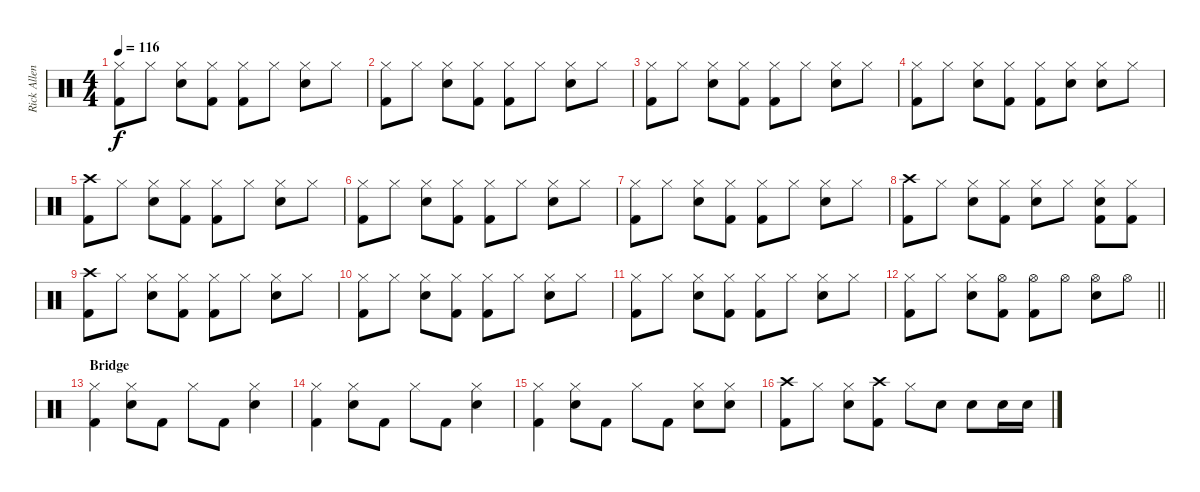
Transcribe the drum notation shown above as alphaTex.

\track ("Rick Allen" "Rick Allen") {instrument percussion}
\staff {score}
\articulation defaults
\ts (4 4)
\tempo 116
\clef neutral
\ks c
("Hi-Hat (closed)" "Kick (hit) 2").8{dy f} "Hi-Hat (closed)".8 ("Hi-Hat (closed)" "Electric Snare (hit)").8 ("Hi-Hat (closed)" "Kick (hit) 2").8 ("Hi-Hat (closed)" "Kick (hit) 2").8 "Hi-Hat (closed)".8 ("Hi-Hat (closed)" "Electric Snare (hit)").8 "Hi-Hat (closed)".8 |
("Hi-Hat (closed)" "Kick (hit) 2").8 "Hi-Hat (closed)".8 ("Hi-Hat (closed)" "Electric Snare (hit)").8 ("Hi-Hat (closed)" "Kick (hit) 2").8 ("Hi-Hat (closed)" "Kick (hit) 2").8 "Hi-Hat (closed)".8 ("Hi-Hat (closed)" "Electric Snare (hit)").8 "Hi-Hat (closed)".8 |
("Hi-Hat (closed)" "Kick (hit) 2").8 "Hi-Hat (closed)".8 ("Hi-Hat (closed)" "Electric Snare (hit)").8 ("Hi-Hat (closed)" "Kick (hit) 2").8 ("Hi-Hat (closed)" "Kick (hit) 2").8 "Hi-Hat (closed)".8 ("Hi-Hat (closed)" "Electric Snare (hit)").8 "Hi-Hat (closed)".8 |
("Hi-Hat (closed)" "Kick (hit) 2").8 "Hi-Hat (closed)".8 ("Hi-Hat (closed)" "Electric Snare (hit)").8 ("Hi-Hat (closed)" "Kick (hit) 2").8 ("Hi-Hat (closed)" "Kick (hit) 2").8 ("Hi-Hat (closed)" "Electric Snare (hit)").8 ("Hi-Hat (closed)" "Electric Snare (hit)").8 "Hi-Hat (closed)".8 |
("Crash high (hit)" "Kick (hit) 2").8 "Hi-Hat (closed)".8 ("Hi-Hat (closed)" "Electric Snare (hit)").8 ("Hi-Hat (closed)" "Kick (hit) 2").8 ("Hi-Hat (closed)" "Kick (hit) 2").8 "Hi-Hat (closed)".8 ("Hi-Hat (closed)" "Electric Snare (hit)").8 "Hi-Hat (closed)".8 |
("Hi-Hat (closed)" "Kick (hit) 2").8 "Hi-Hat (closed)".8 ("Hi-Hat (closed)" "Electric Snare (hit)").8 ("Hi-Hat (closed)" "Kick (hit) 2").8 ("Hi-Hat (closed)" "Kick (hit) 2").8 "Hi-Hat (closed)".8 ("Hi-Hat (closed)" "Electric Snare (hit)").8 "Hi-Hat (closed)".8 |
("Hi-Hat (closed)" "Kick (hit) 2").8 "Hi-Hat (closed)".8 ("Hi-Hat (closed)" "Electric Snare (hit)").8 ("Hi-Hat (closed)" "Kick (hit) 2").8 ("Hi-Hat (closed)" "Kick (hit) 2").8 "Hi-Hat (closed)".8 ("Hi-Hat (closed)" "Electric Snare (hit)").8 "Hi-Hat (closed)".8 |
("Crash high (hit)" "Kick (hit) 2").8 "Hi-Hat (closed)".8 ("Hi-Hat (closed)" "Electric Snare (hit)").8 ("Hi-Hat (closed)" "Kick (hit) 2").8 ("Hi-Hat (closed)" "Electric Snare (hit)").8 "Hi-Hat (closed)".8 ("Hi-Hat (closed)" "Electric Snare (hit)" "Kick (hit) 2").8 ("Hi-Hat (closed)" "Kick (hit) 2").8 |
("Crash high (hit)" "Kick (hit) 2").8 "Hi-Hat (closed)".8 ("Hi-Hat (closed)" "Electric Snare (hit)").8 ("Hi-Hat (closed)" "Kick (hit) 2").8 ("Hi-Hat (closed)" "Kick (hit) 2").8 "Hi-Hat (closed)".8 ("Hi-Hat (closed)" "Electric Snare (hit)").8 "Hi-Hat (closed)".8 |
("Hi-Hat (closed)" "Kick (hit) 2").8 "Hi-Hat (closed)".8 ("Hi-Hat (closed)" "Electric Snare (hit)").8 ("Hi-Hat (closed)" "Kick (hit) 2").8 ("Hi-Hat (closed)" "Kick (hit) 2").8 "Hi-Hat (closed)".8 ("Hi-Hat (closed)" "Electric Snare (hit)").8 "Hi-Hat (closed)".8 |
("Hi-Hat (closed)" "Kick (hit) 2").8 "Hi-Hat (closed)".8 ("Hi-Hat (closed)" "Electric Snare (hit)").8 ("Hi-Hat (closed)" "Kick (hit) 2").8 ("Hi-Hat (closed)" "Kick (hit) 2").8 "Hi-Hat (closed)".8 ("Hi-Hat (closed)" "Electric Snare (hit)").8 "Hi-Hat (closed)".8 |
\barLineRight lightlight
("Hi-Hat (closed)" "Kick (hit) 2").8 "Hi-Hat (closed)".8 ("Hi-Hat (closed)" "Electric Snare (hit)").8 ("Hi-Hat (open)" "Kick (hit) 2").8 ("Hi-Hat (open)" "Kick (hit) 2").8 "Hi-Hat (open)".8 ("Hi-Hat (open)" "Electric Snare (hit)").8 "Hi-Hat (open)".8 |
\section ("" "Bridge")
("Hi-Hat (closed)" "Kick (hit) 2").4 ("Hi-Hat (closed)" "Electric Snare (hit)").8 "Kick (hit) 2".8 "Hi-Hat (closed)".8 "Kick (hit) 2".8 ("Hi-Hat (closed)" "Electric Snare (hit)").4 |
("Hi-Hat (closed)" "Kick (hit) 2").4 ("Hi-Hat (closed)" "Electric Snare (hit)").8 "Kick (hit) 2".8 "Hi-Hat (closed)".8 "Kick (hit) 2".8 ("Hi-Hat (closed)" "Electric Snare (hit)").4 |
("Hi-Hat (closed)" "Kick (hit) 2").4 ("Hi-Hat (closed)" "Electric Snare (hit)").8 "Kick (hit) 2".8 "Hi-Hat (closed)".8 "Kick (hit) 2".8 ("Hi-Hat (closed)" "Electric Snare (hit)").8 ("Hi-Hat (closed)" "Electric Snare (hit)").8 |
("Crash high (hit)" "Kick (hit) 2").8 "Hi-Hat (closed)".8 ("Hi-Hat (closed)" "Electric Snare (hit)").8 ("Crash high (hit)" "Kick (hit) 2").8 "Hi-Hat (closed)".8 "Electric Snare (hit)".8 "Electric Snare (hit)".8 "Electric Snare (hit)".16 "Electric Snare (hit)".16
